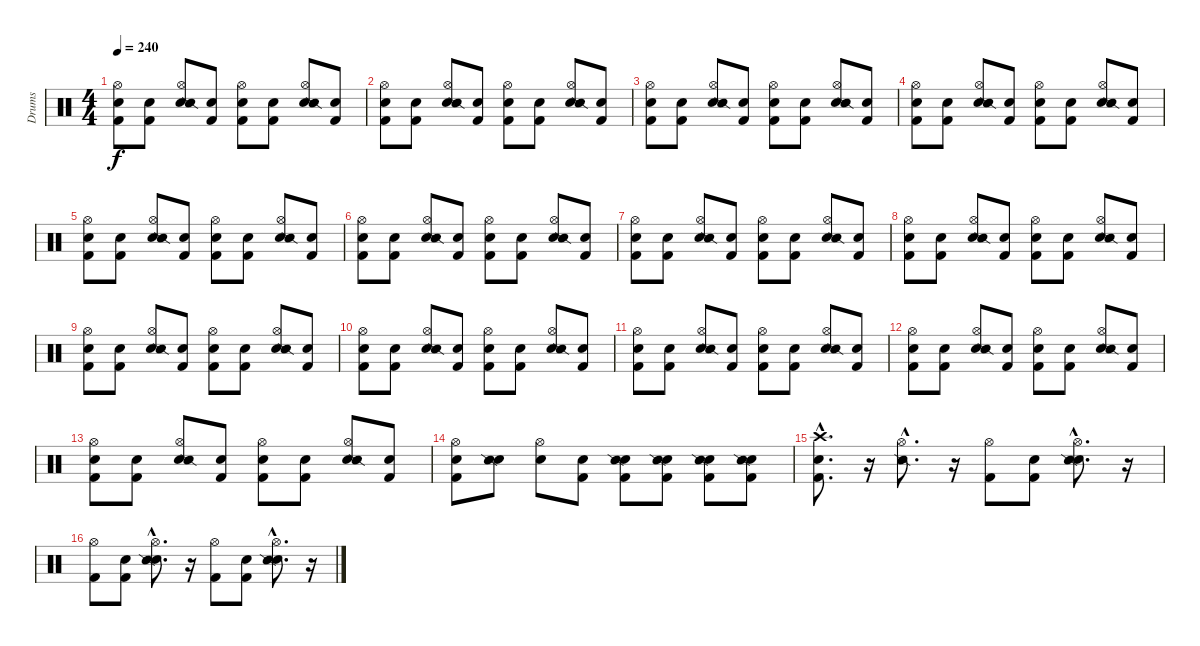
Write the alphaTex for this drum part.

\track ("Drums" "Drums") {instrument percussion}
\staff {score}
\articulation defaults
\ts (4 4)
\tempo 240
\clef neutral
\ks c
("Snare (hit)" "Kick (hit) 2" "Hi-Hat (open)").8{dy f} ("Snare (hit)" "Kick (hit) 2").8 ("Snare (hit)" "Hi-Hat (open)" "Snare (side stick) 2").8 ("Snare (hit)" "Kick (hit) 2").8 ("Snare (hit)" "Kick (hit) 2" "Hi-Hat (open)").8 ("Snare (hit)" "Kick (hit) 2").8 ("Snare (hit)" "Hi-Hat (open)" "Snare (side stick) 2").8 ("Snare (hit)" "Kick (hit) 2").8 |
("Snare (hit)" "Kick (hit) 2" "Hi-Hat (open)").8 ("Snare (hit)" "Kick (hit) 2").8 ("Snare (hit)" "Hi-Hat (open)" "Snare (side stick) 2").8 ("Snare (hit)" "Kick (hit) 2").8 ("Snare (hit)" "Kick (hit) 2" "Hi-Hat (open)").8 ("Snare (hit)" "Kick (hit) 2").8 ("Snare (hit)" "Hi-Hat (open)" "Snare (side stick) 2").8 ("Snare (hit)" "Kick (hit) 2").8 |
("Snare (hit)" "Kick (hit) 2" "Hi-Hat (open)").8 ("Snare (hit)" "Kick (hit) 2").8 ("Snare (hit)" "Hi-Hat (open)" "Snare (side stick) 2").8 ("Snare (hit)" "Kick (hit) 2").8 ("Snare (hit)" "Kick (hit) 2" "Hi-Hat (open)").8 ("Snare (hit)" "Kick (hit) 2").8 ("Snare (hit)" "Hi-Hat (open)" "Snare (side stick) 2").8 ("Snare (hit)" "Kick (hit) 2").8 |
("Snare (hit)" "Kick (hit) 2" "Hi-Hat (open)").8 ("Snare (hit)" "Kick (hit) 2").8 ("Snare (hit)" "Hi-Hat (open)" "Snare (side stick) 2").8 ("Snare (hit)" "Kick (hit) 2").8 ("Snare (hit)" "Kick (hit) 2" "Hi-Hat (open)").8 ("Snare (hit)" "Kick (hit) 2").8 ("Snare (hit)" "Hi-Hat (open)" "Snare (side stick) 2").8 ("Snare (hit)" "Kick (hit) 2").8 |
("Snare (hit)" "Kick (hit) 2" "Hi-Hat (open)").8 ("Snare (hit)" "Kick (hit) 2").8 ("Snare (hit)" "Hi-Hat (open)" "Snare (side stick) 2").8 ("Snare (hit)" "Kick (hit) 2").8 ("Snare (hit)" "Kick (hit) 2" "Hi-Hat (open)").8 ("Snare (hit)" "Kick (hit) 2").8 ("Snare (hit)" "Hi-Hat (open)" "Snare (side stick) 2").8 ("Snare (hit)" "Kick (hit) 2").8 |
("Snare (hit)" "Kick (hit) 2" "Hi-Hat (open)").8 ("Snare (hit)" "Kick (hit) 2").8 ("Snare (hit)" "Hi-Hat (open)" "Snare (side stick) 2").8 ("Snare (hit)" "Kick (hit) 2").8 ("Snare (hit)" "Kick (hit) 2" "Hi-Hat (open)").8 ("Snare (hit)" "Kick (hit) 2").8 ("Snare (hit)" "Hi-Hat (open)" "Snare (side stick) 2").8 ("Snare (hit)" "Kick (hit) 2").8 |
("Snare (hit)" "Kick (hit) 2" "Hi-Hat (open)").8 ("Snare (hit)" "Kick (hit) 2").8 ("Snare (hit)" "Hi-Hat (open)" "Snare (side stick) 2").8 ("Snare (hit)" "Kick (hit) 2").8 ("Snare (hit)" "Kick (hit) 2" "Hi-Hat (open)").8 ("Snare (hit)" "Kick (hit) 2").8 ("Snare (hit)" "Hi-Hat (open)" "Snare (side stick) 2").8 ("Snare (hit)" "Kick (hit) 2").8 |
("Snare (hit)" "Kick (hit) 2" "Hi-Hat (open)").8 ("Snare (hit)" "Kick (hit) 2").8 ("Snare (hit)" "Hi-Hat (open)" "Snare (side stick) 2").8 ("Snare (hit)" "Kick (hit) 2").8 ("Snare (hit)" "Kick (hit) 2" "Hi-Hat (open)").8 ("Snare (hit)" "Kick (hit) 2").8 ("Snare (hit)" "Hi-Hat (open)" "Snare (side stick) 2").8 ("Snare (hit)" "Kick (hit) 2").8 |
("Snare (hit)" "Kick (hit) 2" "Hi-Hat (open)").8 ("Snare (hit)" "Kick (hit) 2").8 ("Snare (hit)" "Hi-Hat (open)" "Snare (side stick) 2").8 ("Snare (hit)" "Kick (hit) 2").8 ("Snare (hit)" "Kick (hit) 2" "Hi-Hat (open)").8 ("Snare (hit)" "Kick (hit) 2").8 ("Snare (hit)" "Hi-Hat (open)" "Snare (side stick) 2").8 ("Snare (hit)" "Kick (hit) 2").8 |
("Snare (hit)" "Kick (hit) 2" "Hi-Hat (open)").8 ("Snare (hit)" "Kick (hit) 2").8 ("Snare (hit)" "Hi-Hat (open)" "Snare (side stick) 2").8 ("Snare (hit)" "Kick (hit) 2").8 ("Snare (hit)" "Kick (hit) 2" "Hi-Hat (open)").8 ("Snare (hit)" "Kick (hit) 2").8 ("Snare (hit)" "Hi-Hat (open)" "Snare (side stick) 2").8 ("Snare (hit)" "Kick (hit) 2").8 |
("Snare (hit)" "Kick (hit) 2" "Hi-Hat (open)").8 ("Snare (hit)" "Kick (hit) 2").8 ("Snare (hit)" "Hi-Hat (open)" "Snare (side stick) 2").8 ("Snare (hit)" "Kick (hit) 2").8 ("Snare (hit)" "Kick (hit) 2" "Hi-Hat (open)").8 ("Snare (hit)" "Kick (hit) 2").8 ("Snare (hit)" "Hi-Hat (open)" "Snare (side stick) 2").8 ("Snare (hit)" "Kick (hit) 2").8 |
("Snare (hit)" "Kick (hit) 2" "Hi-Hat (open)").8 ("Snare (hit)" "Kick (hit) 2").8 ("Snare (hit)" "Hi-Hat (open)" "Snare (side stick) 2").8 ("Snare (hit)" "Kick (hit) 2").8 ("Snare (hit)" "Kick (hit) 2" "Hi-Hat (open)").8 ("Snare (hit)" "Kick (hit) 2").8 ("Snare (hit)" "Hi-Hat (open)" "Snare (side stick) 2").8 ("Snare (hit)" "Kick (hit) 2").8 |
("Snare (hit)" "Kick (hit) 2" "Hi-Hat (open)").8 ("Snare (hit)" "Kick (hit) 2").8 ("Snare (hit)" "Hi-Hat (open)" "Snare (side stick) 2").8 ("Snare (hit)" "Kick (hit) 2").8 ("Snare (hit)" "Kick (hit) 2" "Hi-Hat (open)").8 ("Snare (hit)" "Kick (hit) 2").8 ("Snare (hit)" "Hi-Hat (open)" "Snare (side stick) 2").8 ("Snare (hit)" "Kick (hit) 2").8 |
("Snare (hit)" "Kick (hit) 2" "Hi-Hat (open)").8 ("Snare (hit)" "Snare (side stick) 2").8 ("Snare (hit)" "Hi-Hat (open)").8 ("Snare (hit)" "Kick (hit) 2").8 ("Snare (hit)" "Kick (hit) 2" "Snare (side stick) 2").8 ("Snare (hit)" "Kick (hit) 2" "Snare (side stick) 2").8 ("Snare (hit)" "Kick (hit) 2" "Snare (side stick) 2").8 ("Snare (hit)" "Kick (hit) 2" "Snare (side stick) 2").8 |
("Snare (hit)"{hac} "Kick (hit) 2"{hac} "Crash high (hit)"{hac}).8{d} r.16 ("Hi-Hat (open)"{hac} "Snare (side stick) 2"{hac}).8{d} r.16 ("Kick (hit) 2" "Hi-Hat (open)").8 ("Snare (hit)" "Kick (hit) 2").8 ("Snare (hit)"{hac} "Hi-Hat (open)"{hac} "Snare (side stick) 2"{hac}).8{d} r.16 |
("Kick (hit) 2" "Hi-Hat (open)").8 ("Snare (hit)" "Kick (hit) 2").8 ("Snare (hit)"{hac} "Hi-Hat (open)"{hac} "Snare (side stick) 2"{hac}).8{d} r.16 ("Kick (hit) 2" "Hi-Hat (open)").8 ("Snare (hit)" "Kick (hit) 2").8 ("Snare (hit)"{hac} "Hi-Hat (open)"{hac} "Snare (side stick) 2"{hac}).8{d} r.16
